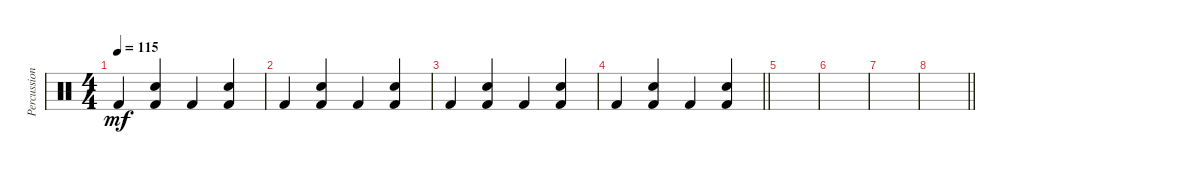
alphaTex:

\track ("Percussion" "Percussion") {instrument percussion}
\staff {score}
\articulation defaults
\ts (4 4)
\tempo 115
\clef neutral
\ks c "Kick (hit) 2".4{dy mf}
("Kick (hit) 2" "Snare (hit) 2").4 "Kick (hit) 2".4 ("Kick (hit) 2" "Snare (hit) 2").4 |
"Kick (hit) 2".4 ("Kick (hit) 2" "Snare (hit) 2").4 "Kick (hit) 2".4 ("Kick (hit) 2" "Snare (hit) 2").4 |
"Kick (hit) 2".4 ("Kick (hit) 2" "Snare (hit) 2").4 "Kick (hit) 2".4 ("Kick (hit) 2" "Snare (hit) 2").4 |
\barLineRight lightlight "Kick (hit) 2".4
("Kick (hit) 2" "Snare (hit) 2").4 "Kick (hit) 2".4 ("Kick (hit) 2" "Snare (hit) 2").4 |
|
|
|
\barLineRight lightlight
